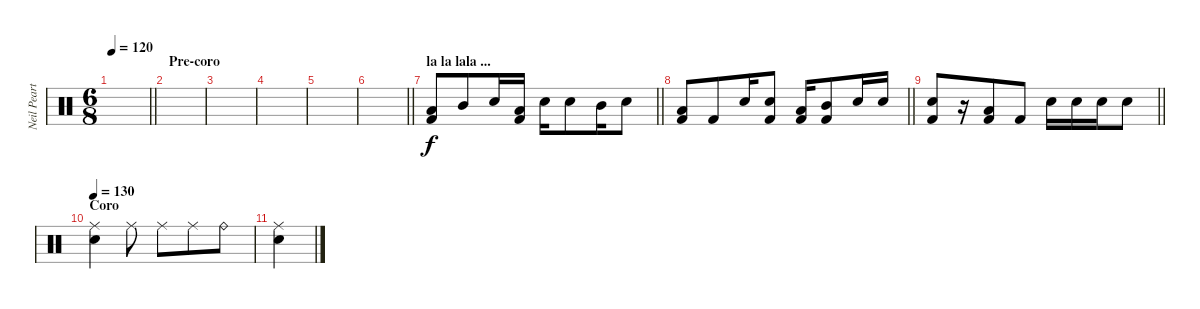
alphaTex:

\track ("Neil Peart " "Neil Peart") {instrument percussion bank 49}
\staff {score}
\articulation defaults
\ts (6 8)
\tempo 120
\clef neutral
\barLineRight lightlight
\ks c
|
\section ("" "Pre-coro")
|
|
|
|
\barLineRight lightlight
|
\section ("" "la la lala ...")
\barLineRight lightlight
("Low Tom (hit)" "Kick (hit) 2").8{dy f} "Mid Tom (hit)".8 "Electric Snare (hit)".16 ("Low Tom (hit)" "Kick (hit) 2").16 "Electric Snare (hit)".16 "Electric Snare (hit)".8 "Mid Tom (hit)".16 "Electric Snare (hit)".8 |
\barLineRight lightlight
("Low Tom (hit)" "Kick (hit) 2").8 "Kick (hit) 2".8 "Electric Snare (hit)".16 ("Electric Snare (hit)" "Kick (hit) 2").8 ("Low Tom (hit)" "Kick (hit) 2").16 ("Mid Tom (hit)" "Kick (hit) 2").8 "Electric Snare (hit)".16 "Electric Snare (hit)".16 |
\barLineRight lightlight
("Electric Snare (hit)" "Kick (hit) 2").8 r.16 ("Low Tom (hit)" "Kick (hit) 2").8 "Kick (hit) 2".8 "Electric Snare (hit)".16 "Electric Snare (hit)".16 "Electric Snare (hit)".16 "Electric Snare (hit)".8 |
\section ("" "Coro")
\tempo 130
("Ride (middle)" "Electric Snare (hit)").4 "Ride (middle)".8 "Ride (middle)".8 "Ride (middle)".8 "Ride (bell)".8 |
("Ride (middle)" "Electric Snare (hit)").4
